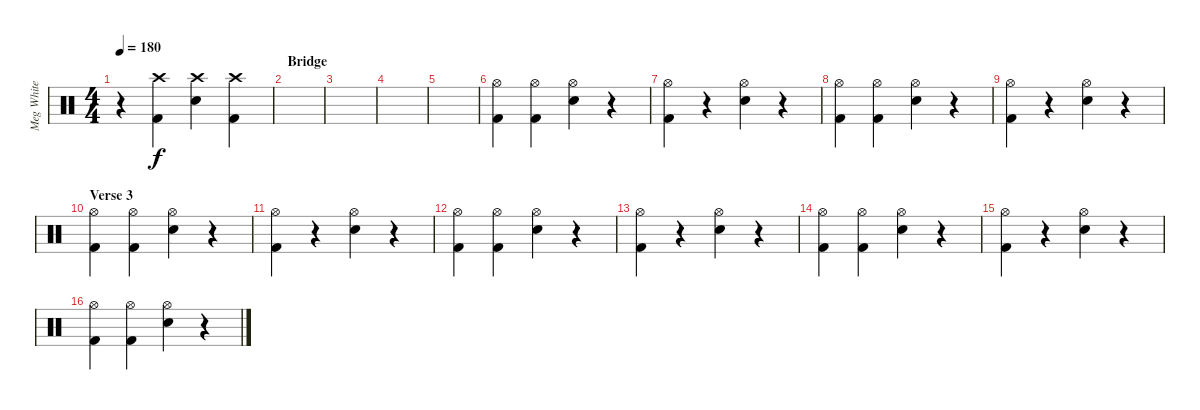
\track ("Meg White" "Meg White") {instrument percussion}
\staff {score}
\articulation defaults
\ts (4 4)
\tempo 180
\clef neutral
\ks c
r.4{dy f} ("Crash high (hit)" "Kick (hit) 2").4 ("Crash high (hit)" "Snare (hit) 2").4 ("Crash high (hit)" "Kick (hit) 2").4 |
\section ("" "Bridge")
|
|
|
|
("Hi-Hat (open)" "Kick (hit) 2").4 ("Hi-Hat (open)" "Kick (hit) 2").4 ("Hi-Hat (open)" "Snare (hit) 2").4 r.4 |
("Hi-Hat (open)" "Kick (hit) 2").4 r.4 ("Hi-Hat (open)" "Snare (hit) 2").4 r.4 |
("Hi-Hat (open)" "Kick (hit) 2").4 ("Hi-Hat (open)" "Kick (hit) 2").4 ("Hi-Hat (open)" "Snare (hit) 2").4 r.4 |
("Hi-Hat (open)" "Kick (hit) 2").4 r.4 ("Hi-Hat (open)" "Snare (hit) 2").4 r.4 |
\section ("" "Verse 3")
("Hi-Hat (open)" "Kick (hit) 2").4 ("Hi-Hat (open)" "Kick (hit) 2").4 ("Hi-Hat (open)" "Snare (hit) 2").4 r.4 |
("Hi-Hat (open)" "Kick (hit) 2").4 r.4 ("Hi-Hat (open)" "Snare (hit) 2").4 r.4 |
("Hi-Hat (open)" "Kick (hit) 2").4 ("Hi-Hat (open)" "Kick (hit) 2").4 ("Hi-Hat (open)" "Snare (hit) 2").4 r.4 |
("Hi-Hat (open)" "Kick (hit) 2").4 r.4 ("Hi-Hat (open)" "Snare (hit) 2").4 r.4 |
("Hi-Hat (open)" "Kick (hit) 2").4 ("Hi-Hat (open)" "Kick (hit) 2").4 ("Hi-Hat (open)" "Snare (hit) 2").4 r.4 |
("Hi-Hat (open)" "Kick (hit) 2").4 r.4 ("Hi-Hat (open)" "Snare (hit) 2").4 r.4 |
("Hi-Hat (open)" "Kick (hit) 2").4 ("Hi-Hat (open)" "Kick (hit) 2").4 ("Hi-Hat (open)" "Snare (hit) 2").4 r.4
